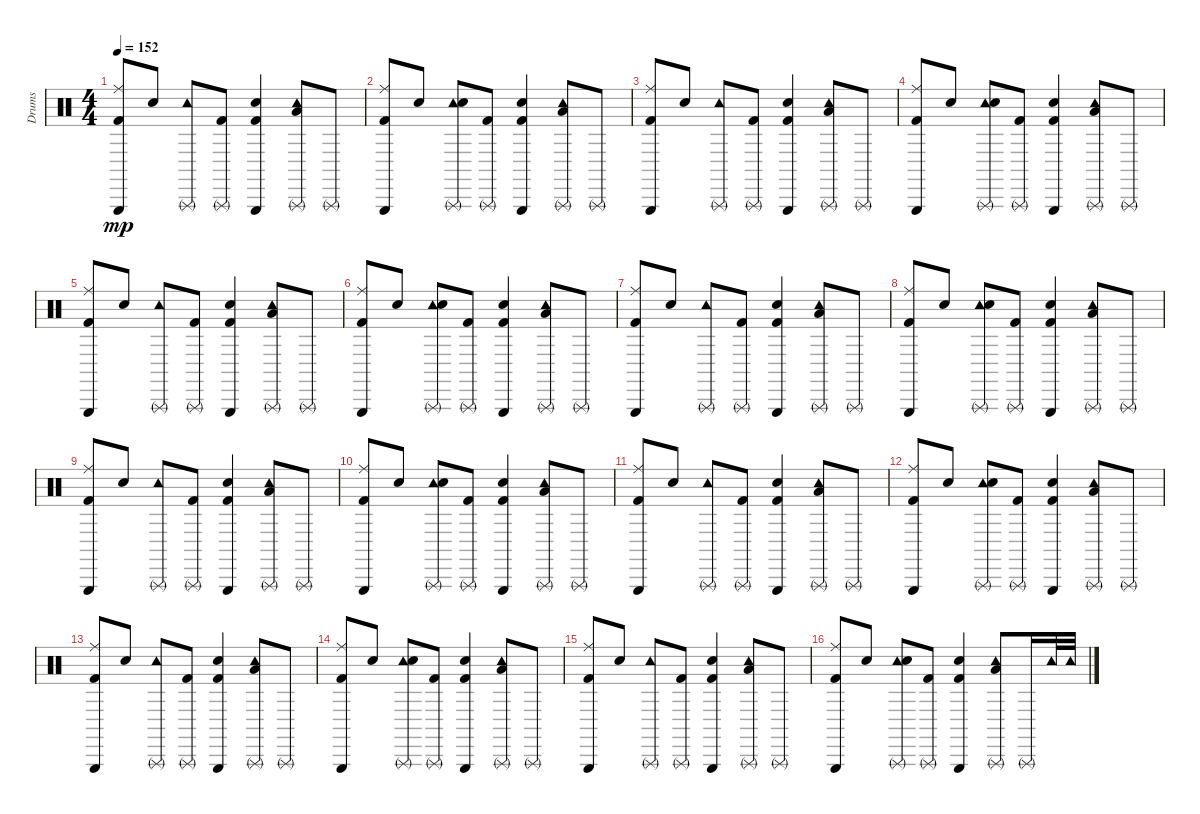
\track ("Drums" "Drums") {instrument percussion}
\staff {score}
\articulation defaults
\ts (4 4)
\tempo 152
\clef neutral
\ks c
("Triangle (hit)" "Ride (middle)" "Kick (hit) 2").8{dy mp} "Snare (hit) 2".8 ("Triangle (rnute)" "Tambourine (hit)").8 ("Triangle (rnute)" "Kick (hit) 2").8 ("Triangle (hit)" "Kick (hit) 2" "Snare (hit) 2").4 ("Tambourine (hit)" "Low Tom (hit)" "Triangle (rnute)").8 "Triangle (rnute)".8 |
("Triangle (hit)" "Ride (middle)" "Kick (hit) 2").8 "Snare (hit) 2".8 ("Triangle (rnute)" "Tambourine (hit)" "Snare (hit) 2").8 ("Triangle (rnute)" "Kick (hit) 2").8 ("Triangle (hit)" "Kick (hit) 2" "Snare (hit) 2").4 ("Tambourine (hit)" "Low Tom (hit)" "Triangle (rnute)").8 "Triangle (rnute)".8 |
("Triangle (hit)" "Ride (middle)" "Kick (hit) 2").8 "Snare (hit) 2".8 ("Triangle (rnute)" "Tambourine (hit)").8 ("Triangle (rnute)" "Kick (hit) 2").8 ("Triangle (hit)" "Kick (hit) 2" "Snare (hit) 2").4 ("Tambourine (hit)" "Low Tom (hit)" "Triangle (rnute)").8 "Triangle (rnute)".8 |
("Triangle (hit)" "Ride (middle)" "Kick (hit) 2").8 "Snare (hit) 2".8 ("Triangle (rnute)" "Tambourine (hit)" "Snare (hit) 2").8 ("Triangle (rnute)" "Kick (hit) 2").8 ("Triangle (hit)" "Kick (hit) 2" "Snare (hit) 2").4 ("Tambourine (hit)" "Low Tom (hit)" "Triangle (rnute)").8 "Triangle (rnute)".8 |
("Triangle (hit)" "Ride (middle)" "Kick (hit) 2").8 "Snare (hit) 2".8 ("Triangle (rnute)" "Tambourine (hit)").8 ("Triangle (rnute)" "Kick (hit) 2").8 ("Triangle (hit)" "Kick (hit) 2" "Snare (hit) 2").4 ("Tambourine (hit)" "Low Tom (hit)" "Triangle (rnute)").8 "Triangle (rnute)".8 |
("Triangle (hit)" "Ride (middle)" "Kick (hit) 2").8 "Snare (hit) 2".8 ("Triangle (rnute)" "Tambourine (hit)" "Snare (hit) 2").8 ("Triangle (rnute)" "Kick (hit) 2").8 ("Triangle (hit)" "Kick (hit) 2" "Snare (hit) 2").4 ("Tambourine (hit)" "Low Tom (hit)" "Triangle (rnute)").8 "Triangle (rnute)".8 |
("Triangle (hit)" "Ride (middle)" "Kick (hit) 2").8 "Snare (hit) 2".8 ("Triangle (rnute)" "Tambourine (hit)").8 ("Triangle (rnute)" "Kick (hit) 2").8 ("Triangle (hit)" "Kick (hit) 2" "Snare (hit) 2").4 ("Tambourine (hit)" "Low Tom (hit)" "Triangle (rnute)").8 "Triangle (rnute)".8 |
("Triangle (hit)" "Ride (middle)" "Kick (hit) 2").8 "Snare (hit) 2".8 ("Triangle (rnute)" "Tambourine (hit)" "Snare (hit) 2").8 ("Triangle (rnute)" "Kick (hit) 2").8 ("Triangle (hit)" "Kick (hit) 2" "Snare (hit) 2").4 ("Tambourine (hit)" "Low Tom (hit)" "Triangle (rnute)").8 "Triangle (rnute)".8 |
("Triangle (hit)" "Ride (middle)" "Kick (hit) 2").8 "Snare (hit) 2".8 ("Triangle (rnute)" "Tambourine (hit)").8 ("Triangle (rnute)" "Kick (hit) 2").8 ("Triangle (hit)" "Kick (hit) 2" "Snare (hit) 2").4 ("Tambourine (hit)" "Low Tom (hit)" "Triangle (rnute)").8 "Triangle (rnute)".8 |
("Triangle (hit)" "Ride (middle)" "Kick (hit) 2").8 "Snare (hit) 2".8 ("Triangle (rnute)" "Tambourine (hit)" "Snare (hit) 2").8 ("Triangle (rnute)" "Kick (hit) 2").8 ("Triangle (hit)" "Kick (hit) 2" "Snare (hit) 2").4 ("Tambourine (hit)" "Low Tom (hit)" "Triangle (rnute)").8 "Triangle (rnute)".8 |
("Triangle (hit)" "Ride (middle)" "Kick (hit) 2").8 "Snare (hit) 2".8 ("Triangle (rnute)" "Tambourine (hit)").8 ("Triangle (rnute)" "Kick (hit) 2").8 ("Triangle (hit)" "Kick (hit) 2" "Snare (hit) 2").4 ("Tambourine (hit)" "Low Tom (hit)" "Triangle (rnute)").8 "Triangle (rnute)".8 |
("Triangle (hit)" "Ride (middle)" "Kick (hit) 2").8 "Snare (hit) 2".8 ("Triangle (rnute)" "Tambourine (hit)" "Snare (hit) 2").8 ("Triangle (rnute)" "Kick (hit) 2").8 ("Triangle (hit)" "Kick (hit) 2" "Snare (hit) 2").4 ("Tambourine (hit)" "Low Tom (hit)" "Triangle (rnute)").8 "Triangle (rnute)".8 |
("Triangle (hit)" "Ride (middle)" "Kick (hit) 2").8 "Snare (hit) 2".8{volume 12} ("Triangle (rnute)" "Tambourine (hit)").8 ("Triangle (rnute)" "Kick (hit) 2").8 ("Triangle (hit)" "Kick (hit) 2" "Snare (hit) 2").4{volume 11} ("Tambourine (hit)" "Low Tom (hit)" "Triangle (rnute)").8{volume 11} "Triangle (rnute)".8{volume 10} |
("Triangle (hit)" "Ride (middle)" "Kick (hit) 2").8{volume 10} "Snare (hit) 2".8 ("Triangle (rnute)" "Tambourine (hit)" "Snare (hit) 2").8{volume 10} ("Triangle (rnute)" "Kick (hit) 2").8{volume 10} ("Triangle (hit)" "Kick (hit) 2" "Snare (hit) 2").4 ("Tambourine (hit)" "Low Tom (hit)" "Triangle (rnute)").8{volume 10} "Triangle (rnute)".8{volume 9} |
("Triangle (hit)" "Ride (middle)" "Kick (hit) 2").8{volume 8} "Snare (hit) 2".8{volume 9} ("Triangle (rnute)" "Tambourine (hit)").8{volume 8} ("Triangle (rnute)" "Kick (hit) 2").8{volume 8} ("Triangle (hit)" "Kick (hit) 2" "Snare (hit) 2").4{volume 8} ("Tambourine (hit)" "Low Tom (hit)" "Triangle (rnute)").8{volume 8} "Triangle (rnute)".8{volume 7} |
("Triangle (hit)" "Ride (middle)" "Kick (hit) 2").8{volume 6} "Snare (hit) 2".8{volume 6} ("Triangle (rnute)" "Tambourine (hit)" "Snare (hit) 2").8{volume 5} ("Triangle (rnute)" "Kick (hit) 2").8{volume 5} ("Triangle (hit)" "Kick (hit) 2" "Snare (hit) 2").4{volume 5} ("Tambourine (hit)" "Low Tom (hit)" "Triangle (rnute)").8{volume 5} "Triangle (rnute)".16{volume 4} "Tambourine (hit)".32{volume 3} "Tambourine (hit)".32
